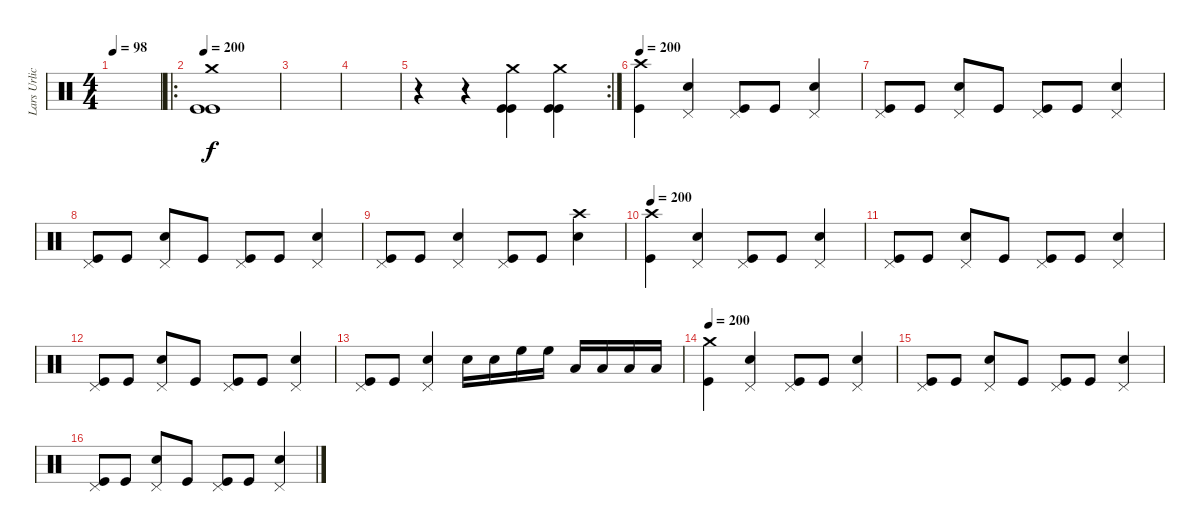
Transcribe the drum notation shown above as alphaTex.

\track ("Lars Urlich" "Lars Urlic") {instrument percussion}
\staff {score}
\articulation defaults
\ts (4 4)
\tempo 98
\tempo 200
\tempo 98
\clef neutral
\ks c
|
\ro
\tempo 200
("Crash medium (hit)" "Kick (hit)" "Kick (hit)").1 |
|
|
\rc 2
r.4 r.4 ("Crash medium (hit)" "Kick (hit)" "Kick (hit)").4 ("Crash medium (hit)" "Kick (hit)" "Kick (hit)").4 |
\tempo 200
("Crash high (hit)" "Kick (hit)").4 ("Pedal Hi-Hat (hit)" "Snare (hit) 2").4 ("Pedal Hi-Hat (hit)" "Kick (hit)").8 "Kick (hit)".8 ("Pedal Hi-Hat (hit)" "Snare (hit) 2").4 |
("Pedal Hi-Hat (hit)" "Kick (hit)").8 "Kick (hit)".8 ("Pedal Hi-Hat (hit)" "Snare (hit) 2").8 "Kick (hit)".8 ("Pedal Hi-Hat (hit)" "Kick (hit)").8 "Kick (hit)".8 ("Pedal Hi-Hat (hit)" "Snare (hit) 2").4 |
("Pedal Hi-Hat (hit)" "Kick (hit)").8 "Kick (hit)".8 ("Pedal Hi-Hat (hit)" "Snare (hit) 2").8 "Kick (hit)".8 ("Pedal Hi-Hat (hit)" "Kick (hit)").8 "Kick (hit)".8 ("Pedal Hi-Hat (hit)" "Snare (hit) 2").4 |
("Pedal Hi-Hat (hit)" "Kick (hit)").8 "Kick (hit)".8 ("Pedal Hi-Hat (hit)" "Snare (hit) 2").4 ("Pedal Hi-Hat (hit)" "Kick (hit)").8 "Kick (hit)".8 ("Crash high (hit)" "Snare (hit) 2").4 |
\tempo 200
("Crash high (hit)" "Kick (hit)").4 ("Pedal Hi-Hat (hit)" "Snare (hit) 2").4 ("Pedal Hi-Hat (hit)" "Kick (hit)").8 "Kick (hit)".8 ("Pedal Hi-Hat (hit)" "Snare (hit) 2").4 |
("Pedal Hi-Hat (hit)" "Kick (hit)").8 "Kick (hit)".8 ("Pedal Hi-Hat (hit)" "Snare (hit) 2").8 "Kick (hit)".8 ("Pedal Hi-Hat (hit)" "Kick (hit)").8 "Kick (hit)".8 ("Pedal Hi-Hat (hit)" "Snare (hit) 2").4 |
("Pedal Hi-Hat (hit)" "Kick (hit)").8 "Kick (hit)".8 ("Pedal Hi-Hat (hit)" "Snare (hit) 2").8 "Kick (hit)".8 ("Pedal Hi-Hat (hit)" "Kick (hit)").8 "Kick (hit)".8 ("Pedal Hi-Hat (hit)" "Snare (hit) 2").4 |
("Pedal Hi-Hat (hit)" "Kick (hit)").8 "Kick (hit)".8 ("Pedal Hi-Hat (hit)" "Snare (hit) 2").4 "Snare (hit) 2".16 "Snare (hit) 2".16 "High Floor Tom (hit)".16 "High Floor Tom (hit)".16 "Low Tom (hit)".16 "Low Tom (hit)".16 "Low Floor Tom (hit)".16 "Low Floor Tom (hit)".16 |
\tempo 200
("Crash medium (hit)" "Kick (hit)").4 ("Pedal Hi-Hat (hit)" "Snare (hit) 2").4 ("Pedal Hi-Hat (hit)" "Kick (hit)").8 "Kick (hit)".8 ("Pedal Hi-Hat (hit)" "Snare (hit) 2").4 |
("Pedal Hi-Hat (hit)" "Kick (hit)").8 "Kick (hit)".8 ("Pedal Hi-Hat (hit)" "Snare (hit) 2").8 "Kick (hit)".8 ("Pedal Hi-Hat (hit)" "Kick (hit)").8 "Kick (hit)".8 ("Pedal Hi-Hat (hit)" "Snare (hit) 2").4 |
("Pedal Hi-Hat (hit)" "Kick (hit)").8 "Kick (hit)".8 ("Pedal Hi-Hat (hit)" "Snare (hit) 2").8 "Kick (hit)".8 ("Pedal Hi-Hat (hit)" "Kick (hit)").8 "Kick (hit)".8 ("Pedal Hi-Hat (hit)" "Snare (hit) 2").4
